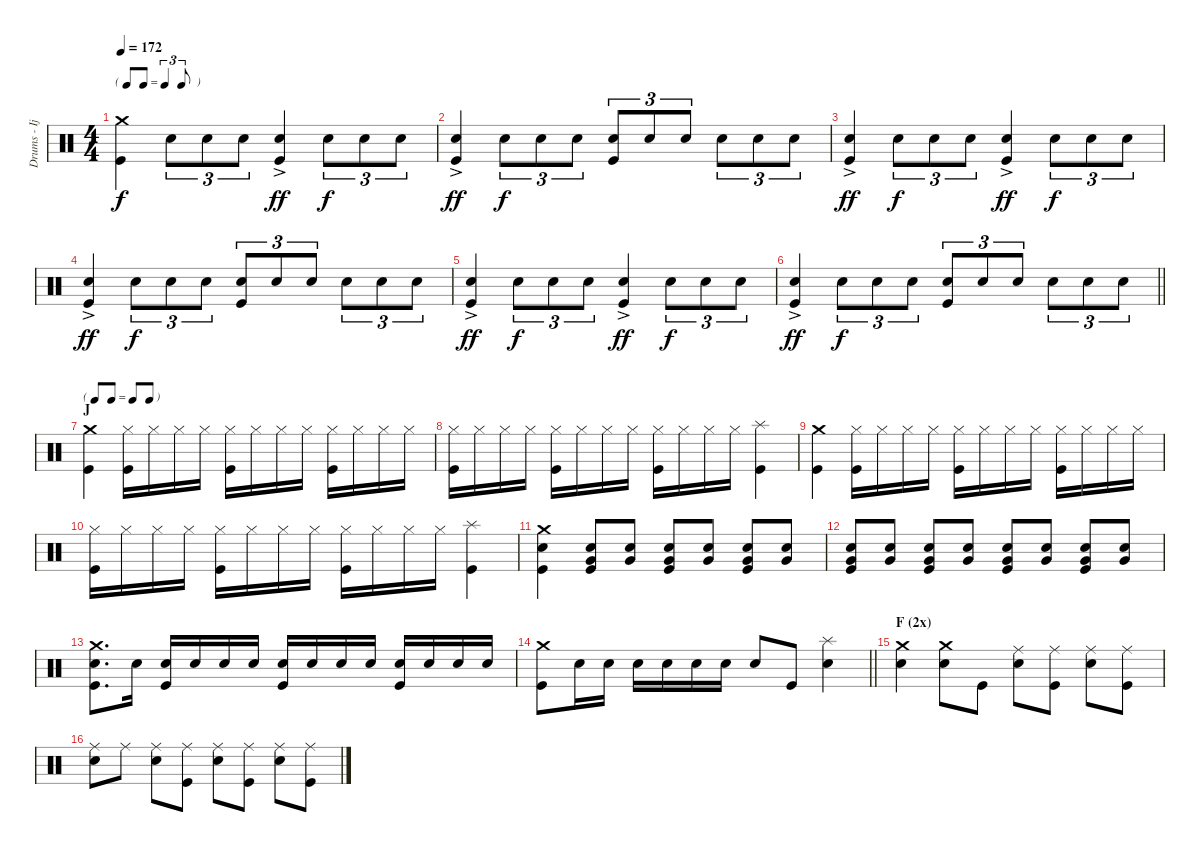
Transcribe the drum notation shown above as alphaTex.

\track ("Drums - Ijichi" "Drums - Ij") {instrument percussion}
\staff {score}
\articulation defaults
\ts (4 4)
\tf triplet8th
\tempo 172
\clef neutral
\ks c
("Crash medium (hit)" "Kick (hit)").4{dy f} "Electric Snare (hit)".8{tu (3 2)} "Electric Snare (hit)".8{tu (3 2)} "Electric Snare (hit)".8{tu (3 2)} ("Electric Snare (hit)"{ac} "Kick (hit)").4{dy ff} "Electric Snare (hit)".8{tu (3 2) dy f} "Electric Snare (hit)".8{tu (3 2)} "Electric Snare (hit)".8{tu (3 2)} |
("Electric Snare (hit)"{ac} "Kick (hit)").4{dy ff} "Electric Snare (hit)".8{tu (3 2) dy f} "Electric Snare (hit)".8{tu (3 2)} "Electric Snare (hit)".8{tu (3 2)} ("Electric Snare (hit)" "Kick (hit)").8{tu (3 2)} "Electric Snare (hit)".8{tu (3 2)} "Electric Snare (hit)".8{tu (3 2)} "Electric Snare (hit)".8{tu (3 2)} "Electric Snare (hit)".8{tu (3 2)} "Electric Snare (hit)".8{tu (3 2)} |
("Electric Snare (hit)"{ac} "Kick (hit)").4{dy ff} "Electric Snare (hit)".8{tu (3 2) dy f} "Electric Snare (hit)".8{tu (3 2)} "Electric Snare (hit)".8{tu (3 2)} ("Electric Snare (hit)"{ac} "Kick (hit)").4{dy ff} "Electric Snare (hit)".8{tu (3 2) dy f} "Electric Snare (hit)".8{tu (3 2)} "Electric Snare (hit)".8{tu (3 2)} |
("Electric Snare (hit)"{ac} "Kick (hit)").4{dy ff} "Electric Snare (hit)".8{tu (3 2) dy f} "Electric Snare (hit)".8{tu (3 2)} "Electric Snare (hit)".8{tu (3 2)} ("Electric Snare (hit)" "Kick (hit)").8{tu (3 2)} "Electric Snare (hit)".8{tu (3 2)} "Electric Snare (hit)".8{tu (3 2)} "Electric Snare (hit)".8{tu (3 2)} "Electric Snare (hit)".8{tu (3 2)} "Electric Snare (hit)".8{tu (3 2)} |
("Electric Snare (hit)"{ac} "Kick (hit)").4{dy ff} "Electric Snare (hit)".8{tu (3 2) dy f} "Electric Snare (hit)".8{tu (3 2)} "Electric Snare (hit)".8{tu (3 2)} ("Electric Snare (hit)"{ac} "Kick (hit)").4{dy ff} "Electric Snare (hit)".8{tu (3 2) dy f} "Electric Snare (hit)".8{tu (3 2)} "Electric Snare (hit)".8{tu (3 2)} |
\barLineRight lightlight
("Electric Snare (hit)"{ac} "Kick (hit)").4{dy ff} "Electric Snare (hit)".8{tu (3 2) dy f} "Electric Snare (hit)".8{tu (3 2)} "Electric Snare (hit)".8{tu (3 2)} ("Electric Snare (hit)" "Kick (hit)").8{tu (3 2)} "Electric Snare (hit)".8{tu (3 2)} "Electric Snare (hit)".8{tu (3 2)} "Electric Snare (hit)".8{tu (3 2)} "Electric Snare (hit)".8{tu (3 2)} "Electric Snare (hit)".8{tu (3 2)} |
\tf none
\section ("" "J")
("Crash medium (hit)" "Kick (hit)").4 ("Hi-Hat (closed)" "Kick (hit)").16 "Hi-Hat (closed)".16 "Hi-Hat (closed)".16 "Hi-Hat (closed)".16 ("Hi-Hat (closed)" "Kick (hit)").16 "Hi-Hat (closed)".16 "Hi-Hat (closed)".16 "Hi-Hat (closed)".16 ("Hi-Hat (closed)" "Kick (hit)").16 "Hi-Hat (closed)".16 "Hi-Hat (closed)".16 "Hi-Hat (closed)".16 |
("Hi-Hat (closed)" "Kick (hit)").16 "Hi-Hat (closed)".16 "Hi-Hat (closed)".16 "Hi-Hat (closed)".16 ("Hi-Hat (closed)" "Kick (hit)").16 "Hi-Hat (closed)".16 "Hi-Hat (closed)".16 "Hi-Hat (closed)".16 ("Hi-Hat (closed)" "Kick (hit)").16 "Hi-Hat (closed)".16 "Hi-Hat (closed)".16 "Hi-Hat (closed)".16 ("Splash (hit)" "Kick (hit)").4 |
("Crash medium (hit)" "Kick (hit)").4 ("Hi-Hat (closed)" "Kick (hit)").16 "Hi-Hat (closed)".16 "Hi-Hat (closed)".16 "Hi-Hat (closed)".16 ("Hi-Hat (closed)" "Kick (hit)").16 "Hi-Hat (closed)".16 "Hi-Hat (closed)".16 "Hi-Hat (closed)".16 ("Hi-Hat (closed)" "Kick (hit)").16 "Hi-Hat (closed)".16 "Hi-Hat (closed)".16 "Hi-Hat (closed)".16 |
("Hi-Hat (closed)" "Kick (hit)").16 "Hi-Hat (closed)".16 "Hi-Hat (closed)".16 "Hi-Hat (closed)".16 ("Hi-Hat (closed)" "Kick (hit)").16 "Hi-Hat (closed)".16 "Hi-Hat (closed)".16 "Hi-Hat (closed)".16 ("Hi-Hat (closed)" "Kick (hit)").16 "Hi-Hat (closed)".16 "Hi-Hat (closed)".16 "Hi-Hat (closed)".16 ("Splash (hit)" "Kick (hit)").4 |
("Crash medium (hit)" "Electric Snare (hit)" "Kick (hit)").4 ("Electric Snare (hit)" "Very Low Tom (hit)" "Kick (hit)").8{volume 10} ("Electric Snare (hit)" "Very Low Tom (hit)").8{volume 13} ("Electric Snare (hit)" "Very Low Tom (hit)" "Kick (hit)").8 ("Electric Snare (hit)" "Very Low Tom (hit)").8 ("Electric Snare (hit)" "Very Low Tom (hit)" "Kick (hit)").8 ("Electric Snare (hit)" "Very Low Tom (hit)").8 |
("Electric Snare (hit)" "Very Low Tom (hit)" "Kick (hit)").8 ("Electric Snare (hit)" "Very Low Tom (hit)").8 ("Electric Snare (hit)" "Very Low Tom (hit)" "Kick (hit)").8 ("Electric Snare (hit)" "Very Low Tom (hit)").8 ("Electric Snare (hit)" "Very Low Tom (hit)" "Kick (hit)").8 ("Electric Snare (hit)" "Very Low Tom (hit)").8 ("Electric Snare (hit)" "Very Low Tom (hit)" "Kick (hit)").8 ("Electric Snare (hit)" "Very Low Tom (hit)").8 |
("Crash medium (hit)" "Electric Snare (hit)" "Kick (hit)").8{d} "Electric Snare (hit)".16 ("Electric Snare (hit)" "Kick (hit)").16 "Electric Snare (hit)".16 "Electric Snare (hit)".16 "Electric Snare (hit)".16 ("Electric Snare (hit)" "Kick (hit)").16 "Electric Snare (hit)".16 "Electric Snare (hit)".16 "Electric Snare (hit)".16 ("Electric Snare (hit)" "Kick (hit)").16 "Electric Snare (hit)".16 "Electric Snare (hit)".16 "Electric Snare (hit)".16 |
\barLineRight lightlight
("Crash medium (hit)" "Kick (hit)").8 "Electric Snare (hit)".16 "Electric Snare (hit)".16 "Electric Snare (hit)".16 "Electric Snare (hit)".16 "Electric Snare (hit)".16 "Electric Snare (hit)".16 "Electric Snare (hit)".8 "Kick (hit)".8 ("Splash (hit)" "Electric Snare (hit)").4 |
\section ("" "F (2x)")
("Crash medium (hit)" "Electric Snare (hit)").4 ("Crash medium (hit)" "Electric Snare (hit)").8 "Kick (hit)".8 ("Ride (middle)" "Electric Snare (hit)").8 ("Ride (middle)" "Kick (hit)").8 ("Ride (middle)" "Electric Snare (hit)").8 ("Ride (middle)" "Kick (hit)").8 |
("Ride (middle)" "Electric Snare (hit)").8 "Ride (middle)".8 ("Ride (middle)" "Electric Snare (hit)").8 ("Ride (middle)" "Kick (hit)").8 ("Ride (middle)" "Electric Snare (hit)").8 ("Ride (middle)" "Kick (hit)").8 ("Ride (middle)" "Electric Snare (hit)").8 ("Ride (middle)" "Kick (hit)").8
